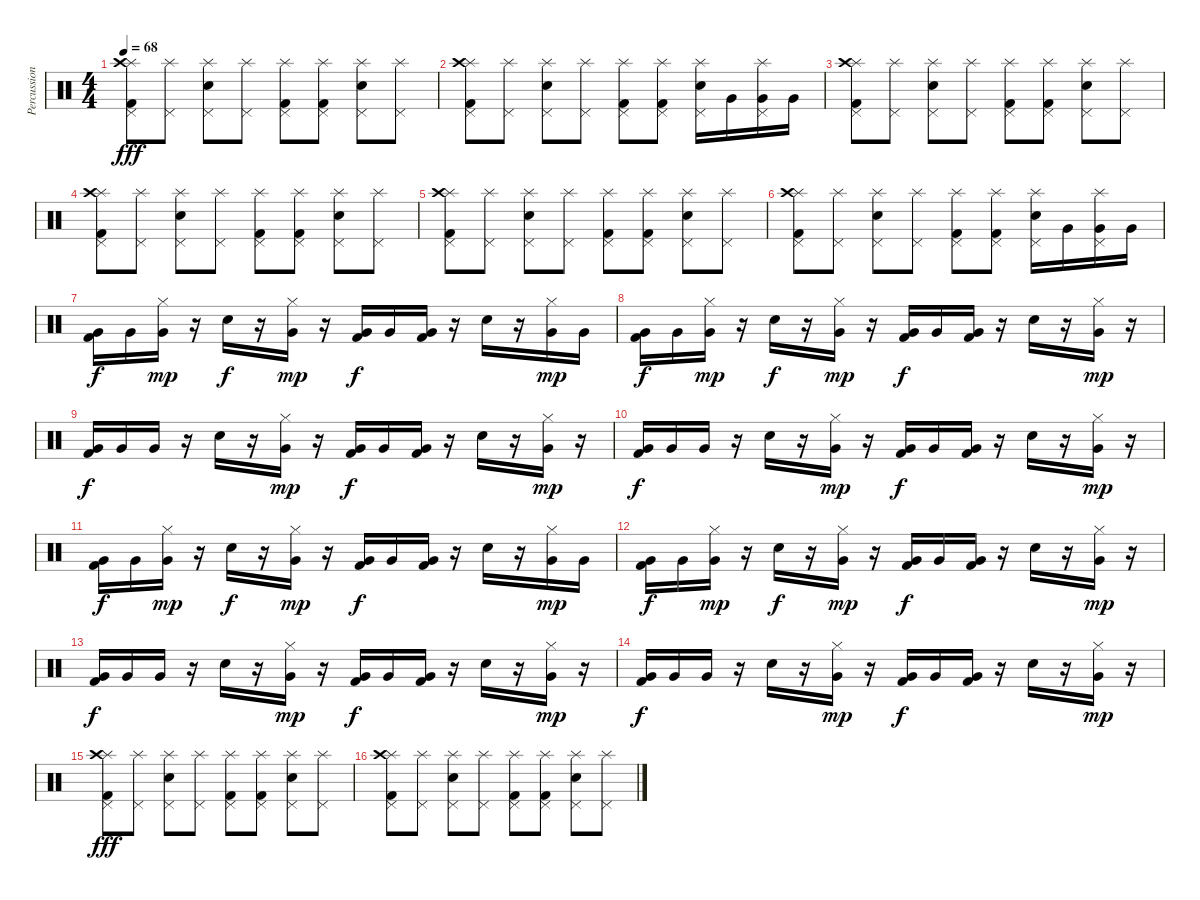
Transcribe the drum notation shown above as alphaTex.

\track ("Percussion" "Percussion") {instrument percussion}
\staff {score}
\articulation defaults
\ts (4 4)
\tempo 68
\clef neutral
\ks c
("Splash (hit)" "Crash high (hit)" "Pedal Hi-Hat (hit)" "Kick (hit) 2").8{dy fff} ("Splash (hit)" "Pedal Hi-Hat (hit)").8 ("Splash (hit)" "Pedal Hi-Hat (hit)" "Electric Snare (hit)").8 ("Splash (hit)" "Pedal Hi-Hat (hit)").8 ("Splash (hit)" "Pedal Hi-Hat (hit)" "Kick (hit) 2").8 ("Splash (hit)" "Pedal Hi-Hat (hit)" "Kick (hit) 2").8 ("Splash (hit)" "Pedal Hi-Hat (hit)" "Electric Snare (hit)").8 ("Splash (hit)" "Pedal Hi-Hat (hit)").8 |
("Splash (hit)" "Crash high (hit)" "Pedal Hi-Hat (hit)" "Kick (hit) 2").8 ("Splash (hit)" "Pedal Hi-Hat (hit)").8 ("Splash (hit)" "Pedal Hi-Hat (hit)" "Electric Snare (hit)").8 ("Splash (hit)" "Pedal Hi-Hat (hit)").8 ("Splash (hit)" "Pedal Hi-Hat (hit)" "Kick (hit) 2").8 ("Splash (hit)" "Pedal Hi-Hat (hit)" "Kick (hit) 2").8 ("Splash (hit)" "Pedal Hi-Hat (hit)" "Electric Snare (hit)").16 "Very Low Tom (hit)".16 ("Splash (hit)" "Pedal Hi-Hat (hit)" "Very Low Tom (hit)").16 "Very Low Tom (hit)".16 |
("Splash (hit)" "Crash high (hit)" "Pedal Hi-Hat (hit)" "Kick (hit) 2").8 ("Splash (hit)" "Pedal Hi-Hat (hit)").8 ("Splash (hit)" "Pedal Hi-Hat (hit)" "Electric Snare (hit)").8 ("Splash (hit)" "Pedal Hi-Hat (hit)").8 ("Splash (hit)" "Pedal Hi-Hat (hit)" "Kick (hit) 2").8 ("Splash (hit)" "Pedal Hi-Hat (hit)" "Kick (hit) 2").8 ("Splash (hit)" "Pedal Hi-Hat (hit)" "Electric Snare (hit)").8 ("Splash (hit)" "Pedal Hi-Hat (hit)").8 |
("Splash (hit)" "Crash high (hit)" "Pedal Hi-Hat (hit)" "Kick (hit) 2").8 ("Splash (hit)" "Pedal Hi-Hat (hit)").8 ("Splash (hit)" "Pedal Hi-Hat (hit)" "Electric Snare (hit)").8 ("Splash (hit)" "Pedal Hi-Hat (hit)").8 ("Splash (hit)" "Pedal Hi-Hat (hit)" "Kick (hit) 2").8 ("Splash (hit)" "Pedal Hi-Hat (hit)" "Kick (hit) 2").8 ("Splash (hit)" "Pedal Hi-Hat (hit)" "Electric Snare (hit)").8 ("Splash (hit)" "Pedal Hi-Hat (hit)").8 |
("Splash (hit)" "Crash high (hit)" "Pedal Hi-Hat (hit)" "Kick (hit) 2").8 ("Splash (hit)" "Pedal Hi-Hat (hit)").8 ("Splash (hit)" "Pedal Hi-Hat (hit)" "Electric Snare (hit)").8 ("Splash (hit)" "Pedal Hi-Hat (hit)").8 ("Splash (hit)" "Pedal Hi-Hat (hit)" "Kick (hit) 2").8 ("Splash (hit)" "Pedal Hi-Hat (hit)" "Kick (hit) 2").8 ("Splash (hit)" "Pedal Hi-Hat (hit)" "Electric Snare (hit)").8 ("Splash (hit)" "Pedal Hi-Hat (hit)").8 |
("Splash (hit)" "Crash high (hit)" "Pedal Hi-Hat (hit)" "Kick (hit) 2").8 ("Splash (hit)" "Pedal Hi-Hat (hit)").8 ("Splash (hit)" "Pedal Hi-Hat (hit)" "Electric Snare (hit)").8 ("Splash (hit)" "Pedal Hi-Hat (hit)").8 ("Splash (hit)" "Pedal Hi-Hat (hit)" "Kick (hit) 2").8 ("Splash (hit)" "Pedal Hi-Hat (hit)" "Kick (hit) 2").8 ("Splash (hit)" "Pedal Hi-Hat (hit)" "Electric Snare (hit)").16 "Very Low Tom (hit)".16 ("Splash (hit)" "Pedal Hi-Hat (hit)" "Very Low Tom (hit)").16 "Very Low Tom (hit)".16 |
("Very Low Tom (hit)" "Kick (hit) 2").16{dy f} "Very Low Tom (hit)".16 ("Hi-Hat (closed)" "Very Low Tom (hit)").16{dy mp} r.16 "Electric Snare (hit)".16{dy f} r.16 ("Hi-Hat (closed)" "Very Low Tom (hit)").16{dy mp} r.16 ("Very Low Tom (hit)" "Kick (hit) 2").16{dy f} "Very Low Tom (hit)".16 ("Very Low Tom (hit)" "Kick (hit) 2").16 r.16 "Electric Snare (hit)".16 r.16 ("Hi-Hat (closed)" "Very Low Tom (hit)").16{dy mp} "Very Low Tom (hit)".16 |
("Very Low Tom (hit)" "Kick (hit) 2").16{dy f} "Very Low Tom (hit)".16 ("Hi-Hat (closed)" "Very Low Tom (hit)").16{dy mp} r.16 "Electric Snare (hit)".16{dy f} r.16 ("Hi-Hat (closed)" "Very Low Tom (hit)").16{dy mp} r.16 ("Very Low Tom (hit)" "Kick (hit) 2").16{dy f} "Very Low Tom (hit)".16 ("Very Low Tom (hit)" "Kick (hit) 2").16 r.16 "Electric Snare (hit)".16 r.16 ("Hi-Hat (closed)" "Very Low Tom (hit)").16{dy mp} r.16 |
("Very Low Tom (hit)" "Kick (hit) 2").16{dy f} "Very Low Tom (hit)".16 "Very Low Tom (hit)".16 r.16 "Electric Snare (hit)".16 r.16 ("Hi-Hat (closed)" "Very Low Tom (hit)").16{dy mp} r.16 ("Very Low Tom (hit)" "Kick (hit) 2").16{dy f} "Very Low Tom (hit)".16 ("Very Low Tom (hit)" "Kick (hit) 2").16 r.16 "Electric Snare (hit)".16 r.16 ("Hi-Hat (closed)" "Very Low Tom (hit)").16{dy mp} r.16 |
("Very Low Tom (hit)" "Kick (hit) 2").16{dy f} "Very Low Tom (hit)".16 "Very Low Tom (hit)".16 r.16 "Electric Snare (hit)".16 r.16 ("Hi-Hat (closed)" "Very Low Tom (hit)").16{dy mp} r.16 ("Very Low Tom (hit)" "Kick (hit) 2").16{dy f} "Very Low Tom (hit)".16 ("Very Low Tom (hit)" "Kick (hit) 2").16 r.16 "Electric Snare (hit)".16 r.16 ("Hi-Hat (closed)" "Very Low Tom (hit)").16{dy mp} r.16 |
("Very Low Tom (hit)" "Kick (hit) 2").16{dy f} "Very Low Tom (hit)".16 ("Hi-Hat (closed)" "Very Low Tom (hit)").16{dy mp} r.16 "Electric Snare (hit)".16{dy f} r.16 ("Hi-Hat (closed)" "Very Low Tom (hit)").16{dy mp} r.16 ("Very Low Tom (hit)" "Kick (hit) 2").16{dy f} "Very Low Tom (hit)".16 ("Very Low Tom (hit)" "Kick (hit) 2").16 r.16 "Electric Snare (hit)".16 r.16 ("Hi-Hat (closed)" "Very Low Tom (hit)").16{dy mp} "Very Low Tom (hit)".16 |
("Very Low Tom (hit)" "Kick (hit) 2").16{dy f} "Very Low Tom (hit)".16 ("Hi-Hat (closed)" "Very Low Tom (hit)").16{dy mp} r.16 "Electric Snare (hit)".16{dy f} r.16 ("Hi-Hat (closed)" "Very Low Tom (hit)").16{dy mp} r.16 ("Very Low Tom (hit)" "Kick (hit) 2").16{dy f} "Very Low Tom (hit)".16 ("Very Low Tom (hit)" "Kick (hit) 2").16 r.16 "Electric Snare (hit)".16 r.16 ("Hi-Hat (closed)" "Very Low Tom (hit)").16{dy mp} r.16 |
("Very Low Tom (hit)" "Kick (hit) 2").16{dy f} "Very Low Tom (hit)".16 "Very Low Tom (hit)".16 r.16 "Electric Snare (hit)".16 r.16 ("Hi-Hat (closed)" "Very Low Tom (hit)").16{dy mp} r.16 ("Very Low Tom (hit)" "Kick (hit) 2").16{dy f} "Very Low Tom (hit)".16 ("Very Low Tom (hit)" "Kick (hit) 2").16 r.16 "Electric Snare (hit)".16 r.16 ("Hi-Hat (closed)" "Very Low Tom (hit)").16{dy mp} r.16 |
("Very Low Tom (hit)" "Kick (hit) 2").16{dy f} "Very Low Tom (hit)".16 "Very Low Tom (hit)".16 r.16 "Electric Snare (hit)".16 r.16 ("Hi-Hat (closed)" "Very Low Tom (hit)").16{dy mp} r.16 ("Very Low Tom (hit)" "Kick (hit) 2").16{dy f} "Very Low Tom (hit)".16 ("Very Low Tom (hit)" "Kick (hit) 2").16 r.16 "Electric Snare (hit)".16 r.16 ("Hi-Hat (closed)" "Very Low Tom (hit)").16{dy mp} r.16 |
("Splash (hit)" "Crash high (hit)" "Pedal Hi-Hat (hit)" "Kick (hit) 2").8{dy fff} ("Splash (hit)" "Pedal Hi-Hat (hit)").8 ("Splash (hit)" "Pedal Hi-Hat (hit)" "Electric Snare (hit)").8 ("Splash (hit)" "Pedal Hi-Hat (hit)").8 ("Splash (hit)" "Pedal Hi-Hat (hit)" "Kick (hit) 2").8 ("Splash (hit)" "Pedal Hi-Hat (hit)" "Kick (hit) 2").8 ("Splash (hit)" "Pedal Hi-Hat (hit)" "Electric Snare (hit)").8 ("Splash (hit)" "Pedal Hi-Hat (hit)").8 |
("Splash (hit)" "Crash high (hit)" "Pedal Hi-Hat (hit)" "Kick (hit) 2").8 ("Splash (hit)" "Pedal Hi-Hat (hit)").8 ("Splash (hit)" "Pedal Hi-Hat (hit)" "Electric Snare (hit)").8 ("Splash (hit)" "Pedal Hi-Hat (hit)").8 ("Splash (hit)" "Pedal Hi-Hat (hit)" "Kick (hit) 2").8 ("Splash (hit)" "Pedal Hi-Hat (hit)" "Kick (hit) 2").8 ("Splash (hit)" "Pedal Hi-Hat (hit)" "Electric Snare (hit)").8 ("Splash (hit)" "Pedal Hi-Hat (hit)").8
